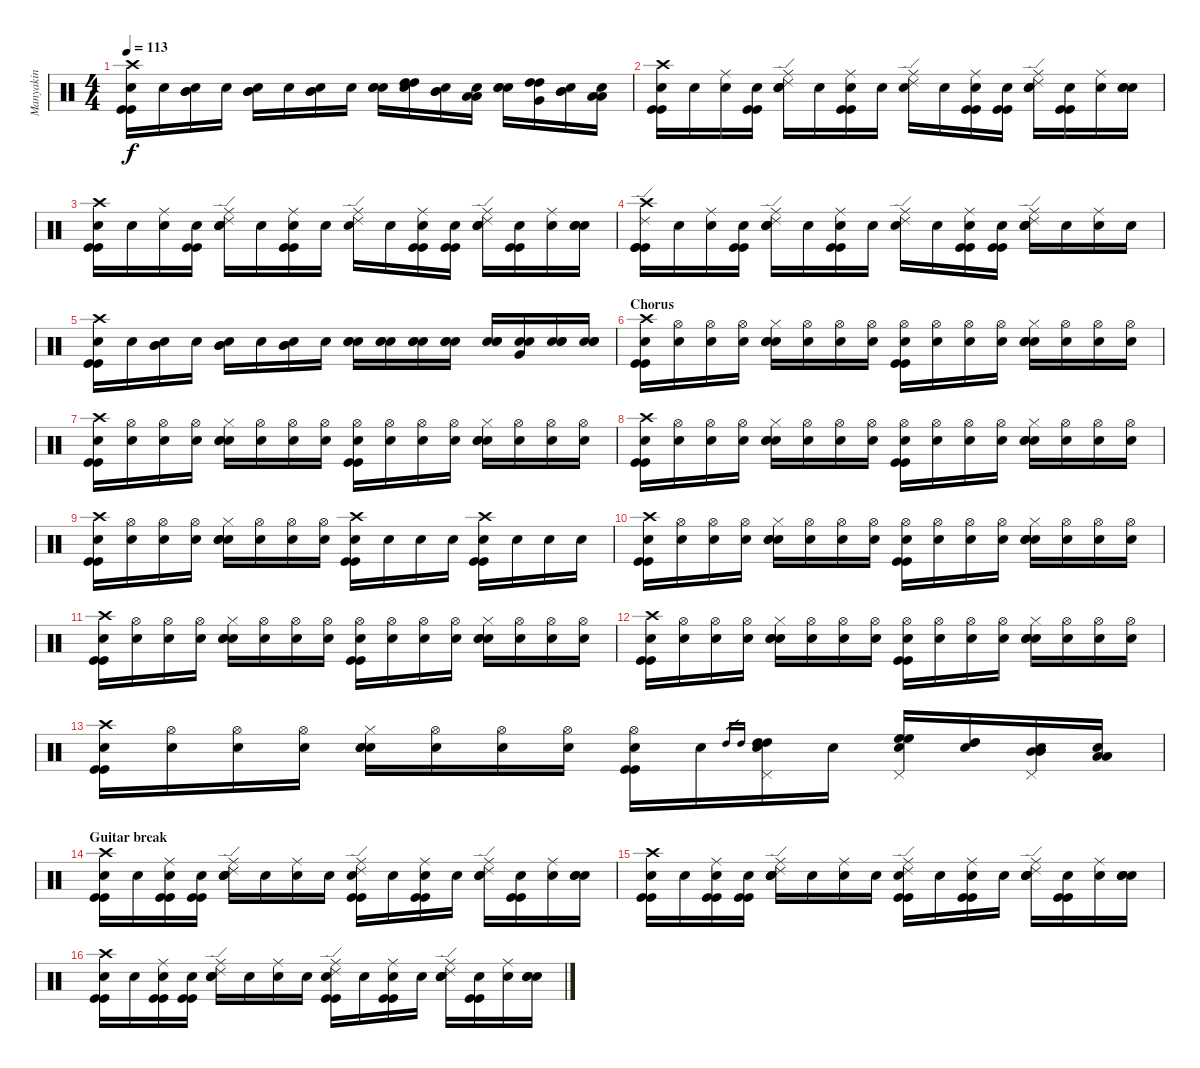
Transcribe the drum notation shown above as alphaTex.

\track ("Manyakin" "Manyakin") {instrument percussion}
\staff {score}
\articulation defaults
\ts (4 4)
\tempo 113
\clef neutral
\ks c
("Crash high (hit)" "Kick (hit)" "Kick (hit)" "Snare (hit)"{x}).16{dy f} "Snare (hit)"{x}.16 ("Mid Tom (hit)" "Mid Tom (hit)" "Snare (hit)"{x}).16 "Snare (hit)"{x}.16 ("Mid Tom (hit)" "Mid Tom (hit)" "Snare (hit)"{x}).16 "Snare (hit)"{x}.16 ("Mid Tom (hit)" "Mid Tom (hit)" "Snare (hit)"{x}).16 "Snare (hit)"{x}.16 ("Electric Snare (hit)" "Electric Snare (hit)" "Snare (hit)"{x}).16 ("High Tom (hit)" "High Tom (hit)" "Snare (hit)"{x}).16 ("Mid Tom (hit)" "Mid Tom (hit)" "Snare (hit)"{x}).16 ("Low Tom (hit)" "Low Tom (hit)" "Snare (hit)"{x}).16 ("Electric Snare (hit)" "Electric Snare (hit)" "Snare (hit)"{x}).16 ("High Tom (hit)" "High Tom (hit)" "Very Low Tom (hit)"{x}).16 ("Mid Tom (hit)" "Mid Tom (hit)" "Snare (hit)"{x}).16 ("Low Tom (hit)" "Low Tom (hit)" "Snare (hit)"{x}).16 |
("Crash high (hit)" "Kick (hit)" "Kick (hit)" "Snare (hit)"{x}).16 "Snare (hit)"{x}.16 ("Ride (middle)" "Snare (hit)"{x}).16 ("Kick (hit)" "Kick (hit)" "Snare (hit)"{x}).16 ("Ride (middle)" "Ride (edge) 2" "Electric Snare (hit)" "Electric Snare (hit)" "Snare (hit)"{x}).16 "Snare (hit)"{x}.16 ("Ride (middle)" "Kick (hit)" "Kick (hit)" "Snare (hit)"{x}).16 "Snare (hit)"{x}.16 ("Ride (middle)" "Ride (edge) 2" "Snare (hit)"{x}).16 "Snare (hit)"{x}.16 ("Ride (middle)" "Kick (hit)" "Kick (hit)" "Snare (hit)"{x}).16 ("Kick (hit)" "Kick (hit)" "Snare (hit)"{x}).16 ("Ride (middle)" "Ride (edge) 2" "Electric Snare (hit)" "Electric Snare (hit)" "Snare (hit)"{x}).16 ("Kick (hit)" "Kick (hit)" "Snare (hit)"{x}).16 ("Ride (middle)" "Snare (hit)"{x}).16 ("Electric Snare (hit)" "Electric Snare (hit)" "Snare (hit)"{x}).16 |
("Crash high (hit)" "Kick (hit)" "Kick (hit)" "Snare (hit)"{x}).16 "Snare (hit)"{x}.16 ("Ride (middle)" "Snare (hit)"{x}).16 ("Kick (hit)" "Kick (hit)" "Snare (hit)"{x}).16 ("Ride (middle)" "Ride (edge) 2" "Electric Snare (hit)" "Electric Snare (hit)" "Snare (hit)"{x}).16 "Snare (hit)"{x}.16 ("Ride (middle)" "Kick (hit)" "Kick (hit)" "Snare (hit)"{x}).16 "Snare (hit)"{x}.16 ("Ride (middle)" "Ride (edge) 2" "Snare (hit)"{x}).16 "Snare (hit)"{x}.16 ("Ride (middle)" "Kick (hit)" "Kick (hit)" "Snare (hit)"{x}).16 ("Kick (hit)" "Kick (hit)" "Snare (hit)"{x}).16 ("Ride (middle)" "Ride (edge) 2" "Electric Snare (hit)" "Electric Snare (hit)" "Snare (hit)"{x}).16 ("Kick (hit)" "Kick (hit)" "Snare (hit)"{x}).16 ("Ride (middle)" "Snare (hit)"{x}).16 ("Electric Snare (hit)" "Electric Snare (hit)" "Snare (hit)"{x}).16 |
("Crash high (hit)" "Ride (edge) 2" "Kick (hit)" "Kick (hit)" "Kick (hit)"{x}).16 "Snare (hit)"{x}.16 ("Ride (middle)" "Snare (hit)"{x}).16 ("Kick (hit)" "Kick (hit)" "Snare (hit)"{x}).16 ("Ride (middle)" "Ride (edge) 2" "Electric Snare (hit)" "Electric Snare (hit)" "Snare (hit)"{x}).16 "Snare (hit)"{x}.16 ("Ride (middle)" "Kick (hit)" "Kick (hit)" "Snare (hit)"{x}).16 "Snare (hit)"{x}.16 ("Ride (middle)" "Ride (edge) 2" "Snare (hit)"{x}).16 "Snare (hit)"{x}.16 ("Ride (middle)" "Kick (hit)" "Kick (hit)" "Snare (hit)"{x}).16 ("Kick (hit)" "Kick (hit)" "Snare (hit)"{x}).16 ("Ride (middle)" "Ride (edge) 2" "Electric Snare (hit)" "Electric Snare (hit)" "Snare (hit)"{x}).16 "Snare (hit)"{x}.16 ("Ride (middle)" "Snare (hit)"{x}).16 "Snare (hit)"{x}.16 |
("Crash high (hit)" "Kick (hit)" "Kick (hit)" "Snare (hit)"{x}).16 "Snare (hit)"{x}.16 ("Mid Tom (hit)" "Mid Tom (hit)" "Snare (hit)"{x}).16 "Snare (hit)"{x}.16 ("Mid Tom (hit)" "Mid Tom (hit)" "Snare (hit)"{x}).16 "Snare (hit)"{x}.16 ("Mid Tom (hit)" "Mid Tom (hit)" "Snare (hit)"{x}).16 "Snare (hit)"{x}.16 ("Electric Snare (hit)" "Electric Snare (hit)" "Snare (hit)"{x}).16 ("Electric Snare (hit)" "Electric Snare (hit)" "Snare (hit)"{x}).16 ("Electric Snare (hit)" "Electric Snare (hit)" "Snare (hit)"{x}).16 ("Electric Snare (hit)" "Electric Snare (hit)" "Snare (hit)"{x}).16 ("Electric Snare (hit)" "Electric Snare (hit)" "Snare (hit)"{x}).16 ("Electric Snare (hit)" "Electric Snare (hit)" "Very Low Tom (hit)"{x}).16 ("Electric Snare (hit)" "Electric Snare (hit)" "Snare (hit)"{x}).16 ("Electric Snare (hit)" "Electric Snare (hit)" "Snare (hit)"{x}).16 |
\section ("" "Chorus")
("Crash high (hit)" "Kick (hit)" "Kick (hit)" "Snare (hit)"{x}).16 ("Hi-Hat (open)" "Snare (hit)"{x}).16 ("Hi-Hat (open)" "Snare (hit)"{x}).16 ("Hi-Hat (open)" "Snare (hit)"{x}).16 ("Hi-Hat (closed)" "Electric Snare (hit)" "Electric Snare (hit)" "Snare (hit)"{x}).16 ("Hi-Hat (open)" "Snare (hit)"{x}).16 ("Hi-Hat (open)" "Snare (hit)"{x}).16 ("Hi-Hat (open)" "Snare (hit)"{x}).16 ("Hi-Hat (open)" "Kick (hit)" "Kick (hit)" "Snare (hit)"{x}).16 ("Hi-Hat (open)" "Snare (hit)"{x}).16 ("Hi-Hat (open)" "Snare (hit)"{x}).16 ("Hi-Hat (open)" "Snare (hit)"{x}).16 ("Hi-Hat (closed)" "Electric Snare (hit)" "Electric Snare (hit)" "Snare (hit)"{x}).16 ("Hi-Hat (open)" "Snare (hit)"{x}).16 ("Hi-Hat (open)" "Snare (hit)"{x}).16 ("Hi-Hat (open)" "Snare (hit)"{x}).16 |
("Crash high (hit)" "Kick (hit)" "Kick (hit)" "Snare (hit)"{x}).16 ("Hi-Hat (open)" "Snare (hit)"{x}).16 ("Hi-Hat (open)" "Snare (hit)"{x}).16 ("Hi-Hat (open)" "Snare (hit)"{x}).16 ("Hi-Hat (closed)" "Electric Snare (hit)" "Electric Snare (hit)" "Snare (hit)"{x}).16 ("Hi-Hat (open)" "Snare (hit)"{x}).16 ("Hi-Hat (open)" "Snare (hit)"{x}).16 ("Hi-Hat (open)" "Snare (hit)"{x}).16 ("Hi-Hat (open)" "Kick (hit)" "Kick (hit)" "Snare (hit)"{x}).16 ("Hi-Hat (open)" "Snare (hit)"{x}).16 ("Hi-Hat (open)" "Snare (hit)"{x}).16 ("Hi-Hat (open)" "Snare (hit)"{x}).16 ("Hi-Hat (closed)" "Electric Snare (hit)" "Electric Snare (hit)" "Snare (hit)"{x}).16 ("Hi-Hat (open)" "Snare (hit)"{x}).16 ("Hi-Hat (open)" "Snare (hit)"{x}).16 ("Hi-Hat (open)" "Snare (hit)"{x}).16 |
("Crash high (hit)" "Kick (hit)" "Kick (hit)" "Snare (hit)"{x}).16 ("Hi-Hat (open)" "Snare (hit)"{x}).16 ("Hi-Hat (open)" "Snare (hit)"{x}).16 ("Hi-Hat (open)" "Snare (hit)"{x}).16 ("Hi-Hat (closed)" "Electric Snare (hit)" "Electric Snare (hit)" "Snare (hit)"{x}).16 ("Hi-Hat (open)" "Snare (hit)"{x}).16 ("Hi-Hat (open)" "Snare (hit)"{x}).16 ("Hi-Hat (open)" "Snare (hit)"{x}).16 ("Hi-Hat (open)" "Kick (hit)" "Kick (hit)" "Snare (hit)"{x}).16 ("Hi-Hat (open)" "Snare (hit)"{x}).16 ("Hi-Hat (open)" "Snare (hit)"{x}).16 ("Hi-Hat (open)" "Snare (hit)"{x}).16 ("Hi-Hat (closed)" "Electric Snare (hit)" "Electric Snare (hit)" "Snare (hit)"{x}).16 ("Hi-Hat (open)" "Snare (hit)"{x}).16 ("Hi-Hat (open)" "Snare (hit)"{x}).16 ("Hi-Hat (open)" "Snare (hit)"{x}).16 |
("Crash high (hit)" "Kick (hit)" "Kick (hit)" "Snare (hit)"{x}).16 ("Hi-Hat (open)" "Snare (hit)"{x}).16 ("Hi-Hat (open)" "Snare (hit)"{x}).16 ("Hi-Hat (open)" "Snare (hit)"{x}).16 ("Hi-Hat (closed)" "Electric Snare (hit)" "Electric Snare (hit)" "Snare (hit)"{x}).16 ("Hi-Hat (open)" "Snare (hit)"{x}).16 ("Hi-Hat (open)" "Snare (hit)"{x}).16 ("Hi-Hat (open)" "Snare (hit)"{x}).16 ("Crash high (hit)" "Kick (hit)" "Kick (hit)" "Snare (hit)"{x}).16 "Snare (hit)"{x}.16 "Snare (hit)"{x}.16 "Snare (hit)"{x}.16 ("Crash high (hit)" "Kick (hit)" "Kick (hit)" "Snare (hit)"{x}).16 "Snare (hit)"{x}.16 "Snare (hit)"{x}.16 "Snare (hit)"{x}.16 |
("Crash high (hit)" "Kick (hit)" "Kick (hit)" "Snare (hit)"{x}).16 ("Hi-Hat (open)" "Snare (hit)"{x}).16 ("Hi-Hat (open)" "Snare (hit)"{x}).16 ("Hi-Hat (open)" "Snare (hit)"{x}).16 ("Hi-Hat (closed)" "Electric Snare (hit)" "Electric Snare (hit)" "Snare (hit)"{x}).16 ("Hi-Hat (open)" "Snare (hit)"{x}).16 ("Hi-Hat (open)" "Snare (hit)"{x}).16 ("Hi-Hat (open)" "Snare (hit)"{x}).16 ("Hi-Hat (open)" "Kick (hit)" "Kick (hit)" "Snare (hit)"{x}).16 ("Hi-Hat (open)" "Snare (hit)"{x}).16 ("Hi-Hat (open)" "Snare (hit)"{x}).16 ("Hi-Hat (open)" "Snare (hit)"{x}).16 ("Hi-Hat (closed)" "Electric Snare (hit)" "Electric Snare (hit)" "Snare (hit)"{x}).16 ("Hi-Hat (open)" "Snare (hit)"{x}).16 ("Hi-Hat (open)" "Snare (hit)"{x}).16 ("Hi-Hat (open)" "Snare (hit)"{x}).16 |
("Crash high (hit)" "Kick (hit)" "Kick (hit)" "Snare (hit)"{x}).16 ("Hi-Hat (open)" "Snare (hit)"{x}).16 ("Hi-Hat (open)" "Snare (hit)"{x}).16 ("Hi-Hat (open)" "Snare (hit)"{x}).16 ("Hi-Hat (closed)" "Electric Snare (hit)" "Electric Snare (hit)" "Snare (hit)"{x}).16 ("Hi-Hat (open)" "Snare (hit)"{x}).16 ("Hi-Hat (open)" "Snare (hit)"{x}).16 ("Hi-Hat (open)" "Snare (hit)"{x}).16 ("Hi-Hat (open)" "Kick (hit)" "Kick (hit)" "Snare (hit)"{x}).16 ("Hi-Hat (open)" "Snare (hit)"{x}).16 ("Hi-Hat (open)" "Snare (hit)"{x}).16 ("Hi-Hat (open)" "Snare (hit)"{x}).16 ("Hi-Hat (closed)" "Electric Snare (hit)" "Electric Snare (hit)" "Snare (hit)"{x}).16 ("Hi-Hat (open)" "Snare (hit)"{x}).16 ("Hi-Hat (open)" "Snare (hit)"{x}).16 ("Hi-Hat (open)" "Snare (hit)"{x}).16 |
("Crash high (hit)" "Kick (hit)" "Kick (hit)" "Snare (hit)"{x}).16 ("Hi-Hat (open)" "Snare (hit)"{x}).16 ("Hi-Hat (open)" "Snare (hit)"{x}).16 ("Hi-Hat (open)" "Snare (hit)"{x}).16 ("Hi-Hat (closed)" "Electric Snare (hit)" "Electric Snare (hit)" "Snare (hit)"{x}).16 ("Hi-Hat (open)" "Snare (hit)"{x}).16 ("Hi-Hat (open)" "Snare (hit)"{x}).16 ("Hi-Hat (open)" "Snare (hit)"{x}).16 ("Hi-Hat (open)" "Kick (hit)" "Kick (hit)" "Snare (hit)"{x}).16 ("Hi-Hat (open)" "Snare (hit)"{x}).16 ("Hi-Hat (open)" "Snare (hit)"{x}).16 ("Hi-Hat (open)" "Snare (hit)"{x}).16 ("Hi-Hat (closed)" "Electric Snare (hit)" "Electric Snare (hit)" "Snare (hit)"{x}).16 ("Hi-Hat (open)" "Snare (hit)"{x}).16 ("Hi-Hat (open)" "Snare (hit)"{x}).16 ("Hi-Hat (open)" "Snare (hit)"{x}).16 |
("Crash high (hit)" "Kick (hit)" "Kick (hit)" "Snare (hit)"{x}).16 ("Hi-Hat (open)" "Snare (hit)"{x}).16 ("Hi-Hat (open)" "Snare (hit)"{x}).16 ("Hi-Hat (open)" "Snare (hit)"{x}).16 ("Hi-Hat (closed)" "Electric Snare (hit)" "Electric Snare (hit)" "Snare (hit)"{x}).16 ("Hi-Hat (open)" "Snare (hit)"{x}).16 ("Hi-Hat (open)" "Snare (hit)"{x}).16 ("Hi-Hat (open)" "Snare (hit)"{x}).16 ("Hi-Hat (open)" "Kick (hit)" "Kick (hit)" "Snare (hit)"{x}).16 "Snare (hit)"{x}.16 "High Tom (hit)".16{gr} "High Tom (hit)".16{gr} ("Pedal Hi-Hat (hit)" "High Tom (hit)" "High Tom (hit)" "Snare (hit)"{x}).16 "Snare (hit)"{x}.16 ("Pedal Hi-Hat (hit)" "High Floor Tom (hit)" "High Floor Tom (hit)" "Snare (hit)"{x}).16 ("High Tom (hit)" "High Tom (hit)" "Snare (hit)"{x}).16 ("Pedal Hi-Hat (hit)" "Mid Tom (hit)" "Mid Tom (hit)" "Snare (hit)"{x}).16 ("Low Tom (hit)" "Low Tom (hit)" "Snare (hit)"{x}).16 |
\section ("" "Guitar break")
("Crash high (hit)" "Kick (hit)" "Kick (hit)" "Snare (hit)"{x}).16 "Snare (hit)"{x}.16 ("Ride (middle)" "Kick (hit)" "Kick (hit)" "Snare (hit)"{x}).16 ("Kick (hit)" "Kick (hit)" "Snare (hit)"{x}).16 ("Ride (middle)" "Ride (edge) 2" "Electric Snare (hit)" "Electric Snare (hit)" "Snare (hit)"{x}).16 "Snare (hit)"{x}.16 ("Ride (middle)" "Snare (hit)"{x}).16 "Snare (hit)"{x}.16 ("Ride (middle)" "Ride (edge) 2" "Kick (hit)" "Kick (hit)" "Snare (hit)"{x}).16 "Snare (hit)"{x}.16 ("Ride (middle)" "Kick (hit)" "Kick (hit)" "Snare (hit)"{x}).16 "Snare (hit)"{x}.16 ("Ride (middle)" "Ride (edge) 2" "Electric Snare (hit)" "Electric Snare (hit)" "Snare (hit)"{x}).16 ("Kick (hit)" "Kick (hit)" "Snare (hit)"{x}).16 ("Ride (middle)" "Snare (hit)"{x}).16 ("Electric Snare (hit)" "Electric Snare (hit)" "Snare (hit)"{x}).16 |
("Crash high (hit)" "Kick (hit)" "Kick (hit)" "Snare (hit)"{x}).16 "Snare (hit)"{x}.16 ("Ride (middle)" "Kick (hit)" "Kick (hit)" "Snare (hit)"{x}).16 ("Kick (hit)" "Kick (hit)" "Snare (hit)"{x}).16 ("Ride (middle)" "Ride (edge) 2" "Electric Snare (hit)" "Electric Snare (hit)" "Snare (hit)"{x}).16 "Snare (hit)"{x}.16 ("Ride (middle)" "Snare (hit)"{x}).16 "Snare (hit)"{x}.16 ("Ride (middle)" "Ride (edge) 2" "Kick (hit)" "Kick (hit)" "Snare (hit)"{x}).16 "Snare (hit)"{x}.16 ("Ride (middle)" "Kick (hit)" "Kick (hit)" "Snare (hit)"{x}).16 "Snare (hit)"{x}.16 ("Ride (middle)" "Ride (edge) 2" "Electric Snare (hit)" "Electric Snare (hit)" "Snare (hit)"{x}).16 ("Kick (hit)" "Kick (hit)" "Snare (hit)"{x}).16 ("Ride (middle)" "Snare (hit)"{x}).16 ("Electric Snare (hit)" "Electric Snare (hit)" "Snare (hit)"{x}).16 |
("Crash high (hit)" "Kick (hit)" "Kick (hit)" "Snare (hit)"{x}).16 "Snare (hit)"{x}.16 ("Ride (middle)" "Kick (hit)" "Kick (hit)" "Snare (hit)"{x}).16 ("Kick (hit)" "Kick (hit)" "Snare (hit)"{x}).16 ("Ride (middle)" "Ride (edge) 2" "Electric Snare (hit)" "Electric Snare (hit)" "Snare (hit)"{x}).16 "Snare (hit)"{x}.16 ("Ride (middle)" "Snare (hit)"{x}).16 "Snare (hit)"{x}.16 ("Ride (middle)" "Ride (edge) 2" "Kick (hit)" "Kick (hit)" "Snare (hit)"{x}).16 "Snare (hit)"{x}.16 ("Ride (middle)" "Kick (hit)" "Kick (hit)" "Snare (hit)"{x}).16 "Snare (hit)"{x}.16 ("Ride (middle)" "Ride (edge) 2" "Electric Snare (hit)" "Electric Snare (hit)" "Snare (hit)"{x}).16 ("Kick (hit)" "Kick (hit)" "Snare (hit)"{x}).16 ("Ride (middle)" "Snare (hit)"{x}).16 ("Electric Snare (hit)" "Electric Snare (hit)" "Snare (hit)"{x}).16
